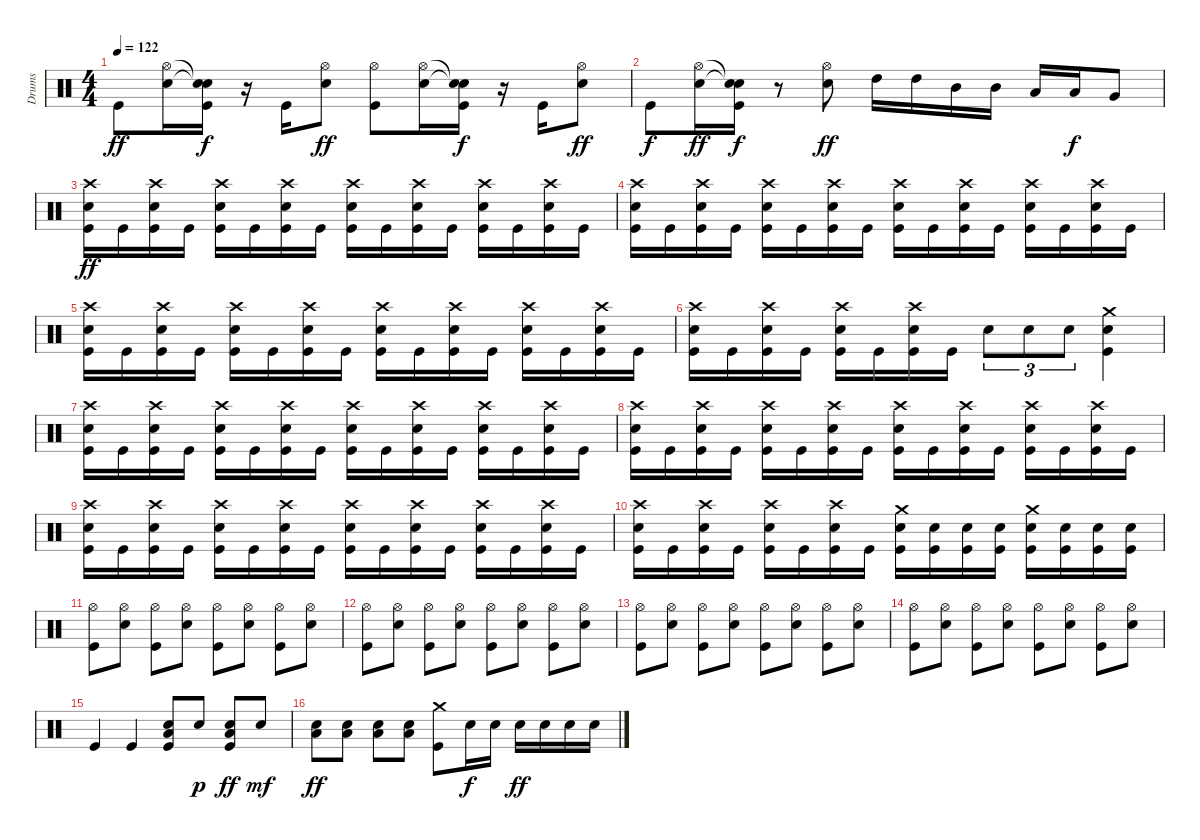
\track ("Drums" "Drums") {instrument percussion}
\staff {score}
\articulation defaults
\ts (4 4)
\tempo 122
\clef neutral
\ks c "Kick (hit)".8{dy ff}
("Hi-Hat (open)" "Electric Snare (hit)").16 ("Snare (hit)"{t} "Snare (hit)"{t} "Kick (hit)").16{dy f} r.16 "Kick (hit)".16 ("Hi-Hat (open)" "Electric Snare (hit)").8{dy ff} ("Hi-Hat (open)" "Kick (hit)").8 ("Hi-Hat (open)" "Electric Snare (hit)").16 ("Snare (hit)"{t} "Snare (hit)"{t} "Kick (hit)").16{dy f} r.16 "Kick (hit)".16 ("Hi-Hat (open)" "Electric Snare (hit)").8{dy ff} |
"Kick (hit)".8{dy f} ("Hi-Hat (open)" "Electric Snare (hit)").16{dy ff} ("Snare (hit)"{t} "Snare (hit)"{t} "Kick (hit)").16{dy f} r.8 ("Hi-Hat (open)" "Electric Snare (hit)").8{dy ff} "High Tom (hit)".16 "High Tom (hit)".16 "Mid Tom (hit)".16 "Mid Tom (hit)".16 "Low Tom (hit)".16 "Low Tom (hit)".16{dy f} "Very Low Tom (hit)".8 |
("Crash high (hit)" "Electric Snare (hit)" "Kick (hit)").16{dy ff} "Kick (hit)".16 ("Crash high (hit)" "Electric Snare (hit)" "Kick (hit)").16 "Kick (hit)".16 ("Crash high (hit)" "Electric Snare (hit)" "Kick (hit)").16 "Kick (hit)".16 ("Crash high (hit)" "Electric Snare (hit)" "Kick (hit)").16 "Kick (hit)".16 ("Crash high (hit)" "Electric Snare (hit)" "Kick (hit)").16 "Kick (hit)".16 ("Crash high (hit)" "Electric Snare (hit)" "Kick (hit)").16 "Kick (hit)".16 ("Crash high (hit)" "Electric Snare (hit)" "Kick (hit)").16 "Kick (hit)".16 ("Crash high (hit)" "Electric Snare (hit)" "Kick (hit)").16 "Kick (hit)".16 |
("Crash high (hit)" "Electric Snare (hit)" "Kick (hit)").16 "Kick (hit)".16 ("Crash high (hit)" "Electric Snare (hit)" "Kick (hit)").16 "Kick (hit)".16 ("Crash high (hit)" "Electric Snare (hit)" "Kick (hit)").16 "Kick (hit)".16 ("Crash high (hit)" "Electric Snare (hit)" "Kick (hit)").16 "Kick (hit)".16 ("Crash high (hit)" "Electric Snare (hit)" "Kick (hit)").16 "Kick (hit)".16 ("Crash high (hit)" "Electric Snare (hit)" "Kick (hit)").16 "Kick (hit)".16 ("Crash high (hit)" "Electric Snare (hit)" "Kick (hit)").16 "Kick (hit)".16 ("Crash high (hit)" "Electric Snare (hit)" "Kick (hit)").16 "Kick (hit)".16 |
("Crash high (hit)" "Electric Snare (hit)" "Kick (hit)").16 "Kick (hit)".16 ("Crash high (hit)" "Electric Snare (hit)" "Kick (hit)").16 "Kick (hit)".16 ("Crash high (hit)" "Electric Snare (hit)" "Kick (hit)").16 "Kick (hit)".16 ("Crash high (hit)" "Electric Snare (hit)" "Kick (hit)").16 "Kick (hit)".16 ("Crash high (hit)" "Electric Snare (hit)" "Kick (hit)").16 "Kick (hit)".16 ("Crash high (hit)" "Electric Snare (hit)" "Kick (hit)").16 "Kick (hit)".16 ("Crash high (hit)" "Electric Snare (hit)" "Kick (hit)").16 "Kick (hit)".16 ("Crash high (hit)" "Electric Snare (hit)" "Kick (hit)").16 "Kick (hit)".16 |
("Crash high (hit)" "Electric Snare (hit)" "Kick (hit)").16 "Kick (hit)".16 ("Crash high (hit)" "Electric Snare (hit)" "Kick (hit)").16 "Kick (hit)".16 ("Crash high (hit)" "Electric Snare (hit)" "Kick (hit)").16 "Kick (hit)".16 ("Crash high (hit)" "Electric Snare (hit)" "Kick (hit)").16 "Kick (hit)".16 "Electric Snare (hit)".8{tu (3 2)} "Electric Snare (hit)".8{tu (3 2)} "Electric Snare (hit)".8{tu (3 2)} ("Crash medium (hit)" "Electric Snare (hit)" "Kick (hit)").4 |
("Crash high (hit)" "Electric Snare (hit)" "Kick (hit)").16 "Kick (hit)".16 ("Crash high (hit)" "Electric Snare (hit)" "Kick (hit)").16 "Kick (hit)".16 ("Crash high (hit)" "Electric Snare (hit)" "Kick (hit)").16 "Kick (hit)".16 ("Crash high (hit)" "Electric Snare (hit)" "Kick (hit)").16 "Kick (hit)".16 ("Crash high (hit)" "Electric Snare (hit)" "Kick (hit)").16 "Kick (hit)".16 ("Crash high (hit)" "Electric Snare (hit)" "Kick (hit)").16 "Kick (hit)".16 ("Crash high (hit)" "Electric Snare (hit)" "Kick (hit)").16 "Kick (hit)".16 ("Crash high (hit)" "Electric Snare (hit)" "Kick (hit)").16 "Kick (hit)".16 |
("Crash high (hit)" "Electric Snare (hit)" "Kick (hit)").16 "Kick (hit)".16 ("Crash high (hit)" "Electric Snare (hit)" "Kick (hit)").16 "Kick (hit)".16 ("Crash high (hit)" "Electric Snare (hit)" "Kick (hit)").16 "Kick (hit)".16 ("Crash high (hit)" "Electric Snare (hit)" "Kick (hit)").16 "Kick (hit)".16 ("Crash high (hit)" "Electric Snare (hit)" "Kick (hit)").16 "Kick (hit)".16 ("Crash high (hit)" "Electric Snare (hit)" "Kick (hit)").16 "Kick (hit)".16 ("Crash high (hit)" "Electric Snare (hit)" "Kick (hit)").16 "Kick (hit)".16 ("Crash high (hit)" "Electric Snare (hit)" "Kick (hit)").16 "Kick (hit)".16 |
("Crash high (hit)" "Electric Snare (hit)" "Kick (hit)").16 "Kick (hit)".16 ("Crash high (hit)" "Electric Snare (hit)" "Kick (hit)").16 "Kick (hit)".16 ("Crash high (hit)" "Electric Snare (hit)" "Kick (hit)").16 "Kick (hit)".16 ("Crash high (hit)" "Electric Snare (hit)" "Kick (hit)").16 "Kick (hit)".16 ("Crash high (hit)" "Electric Snare (hit)" "Kick (hit)").16 "Kick (hit)".16 ("Crash high (hit)" "Electric Snare (hit)" "Kick (hit)").16 "Kick (hit)".16 ("Crash high (hit)" "Electric Snare (hit)" "Kick (hit)").16 "Kick (hit)".16 ("Crash high (hit)" "Electric Snare (hit)" "Kick (hit)").16 "Kick (hit)".16 |
("Crash high (hit)" "Electric Snare (hit)" "Kick (hit)").16 "Kick (hit)".16 ("Crash high (hit)" "Electric Snare (hit)" "Kick (hit)").16 "Kick (hit)".16 ("Crash high (hit)" "Electric Snare (hit)" "Kick (hit)").16 "Kick (hit)".16 ("Crash high (hit)" "Electric Snare (hit)" "Kick (hit)").16 "Kick (hit)".16 ("Crash medium (hit)" "Electric Snare (hit)" "Kick (hit)").16 ("Electric Snare (hit)" "Kick (hit)").16 ("Electric Snare (hit)" "Kick (hit)").16 ("Electric Snare (hit)" "Kick (hit)").16 ("Crash medium (hit)" "Electric Snare (hit)" "Kick (hit)").16 ("Electric Snare (hit)" "Kick (hit)").16 ("Electric Snare (hit)" "Kick (hit)").16 ("Electric Snare (hit)" "Kick (hit)").16 |
("Hi-Hat (open)" "Kick (hit)").8 ("Hi-Hat (open)" "Electric Snare (hit)").8 ("Hi-Hat (open)" "Kick (hit)").8 ("Hi-Hat (open)" "Electric Snare (hit)").8 ("Hi-Hat (open)" "Kick (hit)").8 ("Hi-Hat (open)" "Electric Snare (hit)").8 ("Hi-Hat (open)" "Kick (hit)").8 ("Hi-Hat (open)" "Electric Snare (hit)").8 |
("Hi-Hat (open)" "Kick (hit)").8 ("Hi-Hat (open)" "Electric Snare (hit)").8 ("Hi-Hat (open)" "Kick (hit)").8 ("Hi-Hat (open)" "Electric Snare (hit)").8 ("Hi-Hat (open)" "Kick (hit)").8 ("Hi-Hat (open)" "Electric Snare (hit)").8 ("Hi-Hat (open)" "Kick (hit)").8 ("Hi-Hat (open)" "Electric Snare (hit)").8 |
("Hi-Hat (open)" "Kick (hit)").8 ("Hi-Hat (open)" "Electric Snare (hit)").8 ("Hi-Hat (open)" "Kick (hit)").8 ("Hi-Hat (open)" "Electric Snare (hit)").8 ("Hi-Hat (open)" "Kick (hit)").8 ("Hi-Hat (open)" "Electric Snare (hit)").8 ("Hi-Hat (open)" "Kick (hit)").8 ("Hi-Hat (open)" "Electric Snare (hit)").8 |
("Hi-Hat (open)" "Kick (hit)").8 ("Hi-Hat (open)" "Electric Snare (hit)").8 ("Hi-Hat (open)" "Kick (hit)").8 ("Hi-Hat (open)" "Electric Snare (hit)").8 ("Hi-Hat (open)" "Kick (hit)").8 ("Hi-Hat (open)" "Electric Snare (hit)").8 ("Hi-Hat (open)" "Kick (hit)").8 ("Hi-Hat (open)" "Electric Snare (hit)").8 |
"Kick (hit)".4 "Kick (hit)".4 ("Electric Snare (hit)" "Low Floor Tom (hit)" "Kick (hit)").8 "Electric Snare (hit)".8{dy p} ("Electric Snare (hit)" "Low Floor Tom (hit)" "Kick (hit)").8{dy ff} "Electric Snare (hit)".8{dy mf} |
("Low Tom (hit)" "Electric Snare (hit)").8{dy ff} ("Low Tom (hit)" "Electric Snare (hit)").8 ("Low Tom (hit)" "Electric Snare (hit)").8 ("Low Tom (hit)" "Electric Snare (hit)").8 ("Crash medium (hit)" "Kick (hit)").8 "Electric Snare (hit)".16{dy f} "Electric Snare (hit)".16 "Electric Snare (hit)".16{dy ff} "Electric Snare (hit)".16 "Electric Snare (hit)".16 "Electric Snare (hit)".16
